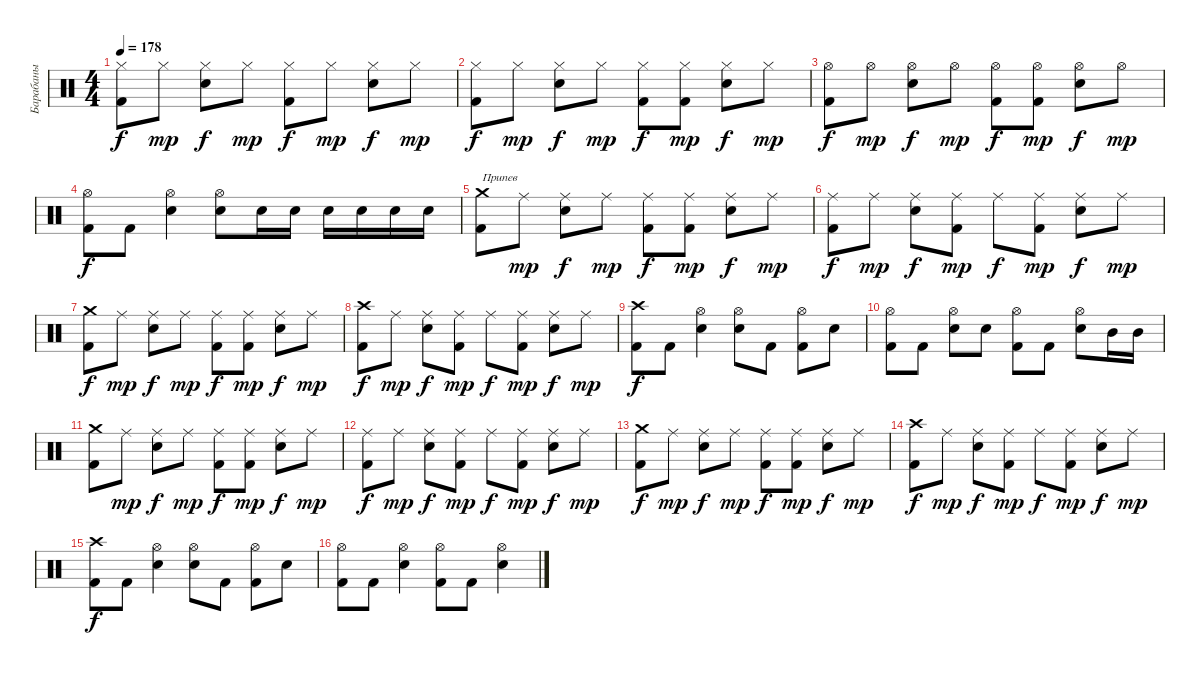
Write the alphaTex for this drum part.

\track ("Барабаны" "Барабаны") {instrument percussion}
\staff {score}
\articulation defaults
\ts (4 4)
\tempo 178
\clef neutral
\ks c
("Hi-Hat (closed)" "Kick (hit) 2").8{dy f} "Hi-Hat (closed)".8{dy mp} ("Hi-Hat (closed)" "Electric Snare (hit)").8{dy f} "Hi-Hat (closed)".8{dy mp} ("Hi-Hat (closed)" "Kick (hit) 2").8{dy f} "Hi-Hat (closed)".8{dy mp} ("Hi-Hat (closed)" "Electric Snare (hit)").8{dy f} "Hi-Hat (closed)".8{dy mp} |
("Hi-Hat (closed)" "Kick (hit) 2").8{dy f} "Hi-Hat (closed)".8{dy mp} ("Hi-Hat (closed)" "Electric Snare (hit)").8{dy f} "Hi-Hat (closed)".8{dy mp} ("Hi-Hat (closed)" "Kick (hit) 2").8{dy f} ("Hi-Hat (closed)" "Kick (hit) 2").8{dy mp} ("Hi-Hat (closed)" "Electric Snare (hit)").8{dy f} "Hi-Hat (closed)".8{dy mp} |
("Hi-Hat (open)" "Kick (hit) 2").8{dy f} "Hi-Hat (open)".8{dy mp} ("Hi-Hat (open)" "Electric Snare (hit)").8{dy f} "Hi-Hat (open)".8{dy mp} ("Hi-Hat (open)" "Kick (hit) 2").8{dy f} ("Hi-Hat (open)" "Kick (hit) 2").8{dy mp} ("Hi-Hat (open)" "Electric Snare (hit)").8{dy f} "Hi-Hat (open)".8{dy mp} |
("Hi-Hat (open)" "Kick (hit) 2").8{dy f} "Kick (hit) 2".8 ("Hi-Hat (open)" "Electric Snare (hit)").4 ("Hi-Hat (open)" "Electric Snare (hit)").8 "Electric Snare (hit)".16 "Electric Snare (hit)".16 "Electric Snare (hit)".16 "Electric Snare (hit)".16 "Electric Snare (hit)".16 "Electric Snare (hit)".16 |
("Crash medium (hit)" "Kick (hit) 2").8{txt "Припев"} "Ride (middle)".8{dy mp} ("Ride (middle)" "Electric Snare (hit)").8{dy f} "Ride (middle)".8{dy mp} ("Ride (middle)" "Kick (hit) 2").8{dy f} ("Ride (middle)" "Kick (hit) 2").8{dy mp} ("Ride (middle)" "Electric Snare (hit)").8{dy f} "Ride (middle)".8{dy mp} |
("Ride (middle)" "Kick (hit) 2").8{dy f} "Ride (middle)".8{dy mp} ("Ride (middle)" "Electric Snare (hit)").8{dy f} ("Ride (middle)" "Kick (hit) 2").8{dy mp} "Ride (middle)".8{dy f} ("Ride (middle)" "Kick (hit) 2").8{dy mp} ("Ride (middle)" "Electric Snare (hit)").8{dy f} "Ride (middle)".8{dy mp} |
("Crash medium (hit)" "Kick (hit) 2").8{dy f} "Ride (middle)".8{dy mp} ("Ride (middle)" "Electric Snare (hit)").8{dy f} "Ride (middle)".8{dy mp} ("Ride (middle)" "Kick (hit) 2").8{dy f} ("Ride (middle)" "Kick (hit) 2").8{dy mp} ("Ride (middle)" "Electric Snare (hit)").8{dy f} "Ride (middle)".8{dy mp} |
("Crash high (hit)" "Kick (hit) 2").8{dy f} "Ride (middle)".8{dy mp} ("Ride (middle)" "Electric Snare (hit)").8{dy f} ("Ride (middle)" "Kick (hit) 2").8{dy mp} "Ride (middle)".8{dy f} ("Ride (middle)" "Kick (hit) 2").8{dy mp} ("Ride (middle)" "Electric Snare (hit)").8{dy f} "Ride (middle)".8{dy mp} |
("Crash high (hit)" "Kick (hit) 2").8{dy f} "Kick (hit) 2".8 ("Hi-Hat (open)" "Electric Snare (hit)").4 ("Hi-Hat (open)" "Electric Snare (hit)").8 "Kick (hit) 2".8 ("Hi-Hat (open)" "Kick (hit) 2").8 "Electric Snare (hit)".8 |
("Hi-Hat (open)" "Kick (hit) 2").8 "Kick (hit) 2".8 ("Hi-Hat (open)" "Electric Snare (hit)").8 "Electric Snare (hit)".8 ("Hi-Hat (open)" "Kick (hit) 2").8 "Kick (hit) 2".8 ("Hi-Hat (open)" "Electric Snare (hit)").8 "Mid Tom (hit)".16 "Mid Tom (hit)".16 |
("Crash medium (hit)" "Kick (hit) 2").8 "Ride (middle)".8{dy mp} ("Ride (middle)" "Electric Snare (hit)").8{dy f} "Ride (middle)".8{dy mp} ("Ride (middle)" "Kick (hit) 2").8{dy f} ("Ride (middle)" "Kick (hit) 2").8{dy mp} ("Ride (middle)" "Electric Snare (hit)").8{dy f} "Ride (middle)".8{dy mp} |
("Ride (middle)" "Kick (hit) 2").8{dy f} "Ride (middle)".8{dy mp} ("Ride (middle)" "Electric Snare (hit)").8{dy f} ("Ride (middle)" "Kick (hit) 2").8{dy mp} "Ride (middle)".8{dy f} ("Ride (middle)" "Kick (hit) 2").8{dy mp} ("Ride (middle)" "Electric Snare (hit)").8{dy f} "Ride (middle)".8{dy mp} |
("Crash medium (hit)" "Kick (hit) 2").8{dy f} "Ride (middle)".8{dy mp} ("Ride (middle)" "Electric Snare (hit)").8{dy f} "Ride (middle)".8{dy mp} ("Ride (middle)" "Kick (hit) 2").8{dy f} ("Ride (middle)" "Kick (hit) 2").8{dy mp} ("Ride (middle)" "Electric Snare (hit)").8{dy f} "Ride (middle)".8{dy mp} |
("Crash high (hit)" "Kick (hit) 2").8{dy f} "Ride (middle)".8{dy mp} ("Ride (middle)" "Electric Snare (hit)").8{dy f} ("Ride (middle)" "Kick (hit) 2").8{dy mp} "Ride (middle)".8{dy f} ("Ride (middle)" "Kick (hit) 2").8{dy mp} ("Ride (middle)" "Electric Snare (hit)").8{dy f} "Ride (middle)".8{dy mp} |
("Crash high (hit)" "Kick (hit) 2").8{dy f} "Kick (hit) 2".8 ("Hi-Hat (open)" "Electric Snare (hit)").4 ("Hi-Hat (open)" "Electric Snare (hit)").8 "Kick (hit) 2".8 ("Hi-Hat (open)" "Kick (hit) 2").8 "Electric Snare (hit)".8 |
("Hi-Hat (open)" "Kick (hit) 2").8 "Kick (hit) 2".8 ("Hi-Hat (open)" "Electric Snare (hit)").4 ("Hi-Hat (open)" "Kick (hit) 2").8 "Kick (hit) 2".8 ("Hi-Hat (open)" "Electric Snare (hit)").4
